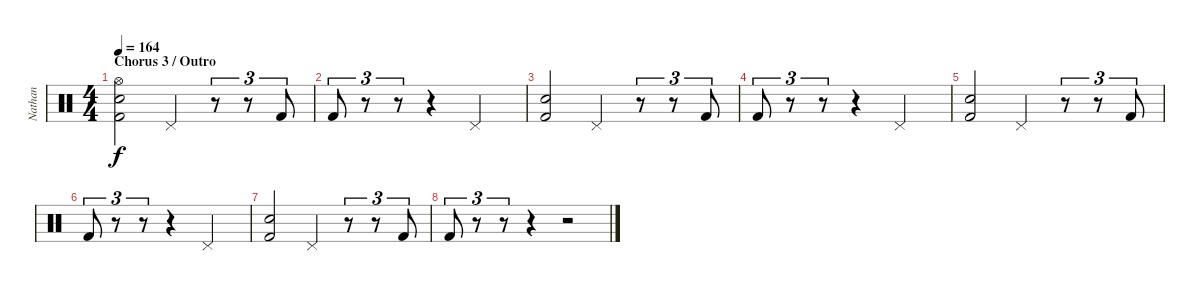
\track ("Nathan" "Nathan") {instrument percussion}
\staff {score}
\articulation defaults
\ts (4 4)
\section ("" "Chorus 3 / Outro")
\tempo 164
\clef neutral
\ks c
("Hi-Hat (open)" "Snare (hit) 2" "Kick (hit) 2").2{dy f} "Pedal Hi-Hat (hit)".4 r.8{tu (3 2)} r.8{tu (3 2)} "Kick (hit) 2".8{tu (3 2)} |
"Kick (hit) 2".8{tu (3 2)} r.8{tu (3 2)} r.8{tu (3 2)} r.4 "Pedal Hi-Hat (hit)".2 |
("Snare (hit) 2" "Kick (hit) 2").2 "Pedal Hi-Hat (hit)".4 r.8{tu (3 2)} r.8{tu (3 2)} "Kick (hit) 2".8{tu (3 2)} |
"Kick (hit) 2".8{tu (3 2)} r.8{tu (3 2)} r.8{tu (3 2)} r.4 "Pedal Hi-Hat (hit)".2 |
("Snare (hit) 2" "Kick (hit) 2").2 "Pedal Hi-Hat (hit)".4 r.8{tu (3 2)} r.8{tu (3 2)} "Kick (hit) 2".8{tu (3 2)} |
"Kick (hit) 2".8{tu (3 2)} r.8{tu (3 2)} r.8{tu (3 2)} r.4 "Pedal Hi-Hat (hit)".2 |
("Snare (hit) 2" "Kick (hit) 2").2 "Pedal Hi-Hat (hit)".4 r.8{tu (3 2)} r.8{tu (3 2)} "Kick (hit) 2".8{tu (3 2)} |
"Kick (hit) 2".8{tu (3 2)} r.8{tu (3 2)} r.8{tu (3 2)} r.4 r.2
